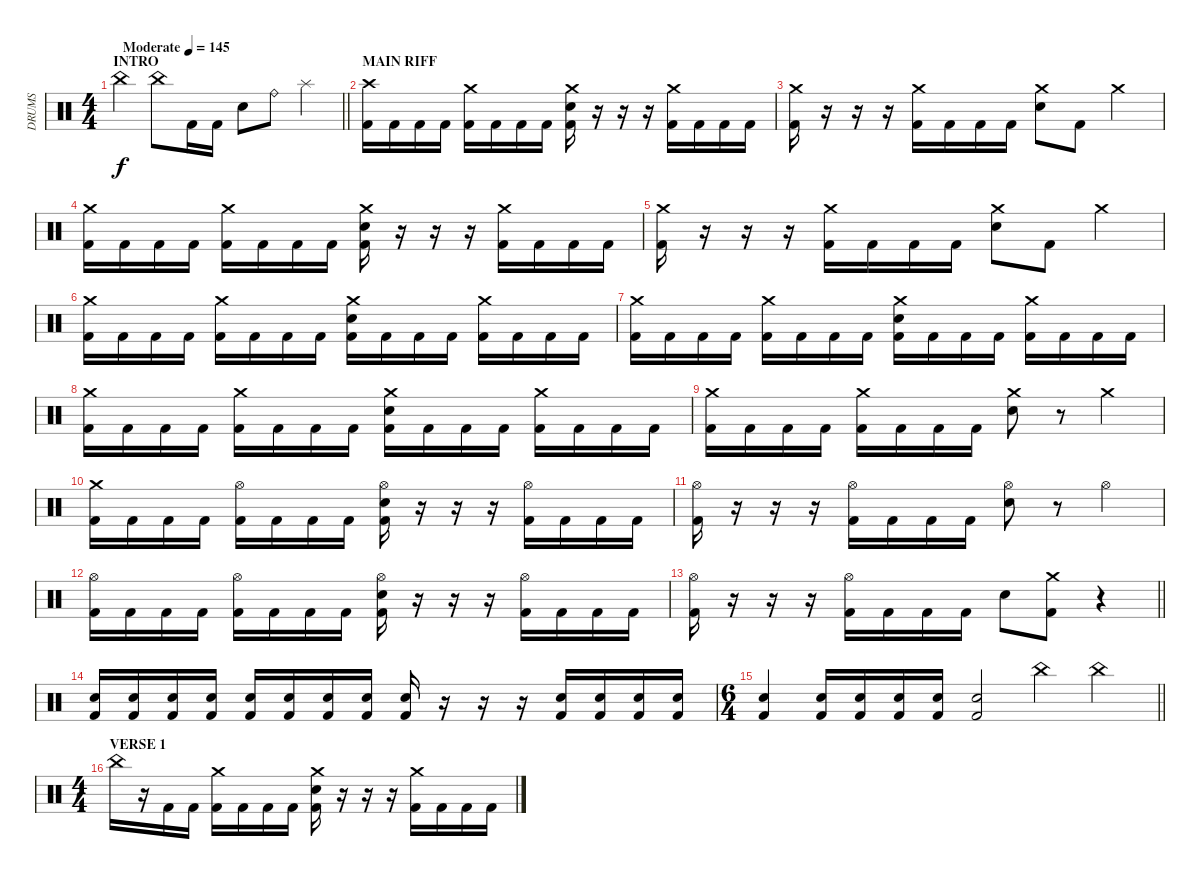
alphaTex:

\track ("DRUMS" "DRUMS") {instrument percussion}
\staff {score}
\articulation defaults
\ts (4 4)
\section ("" "INTRO")
\tempo (145 "Moderate")
\clef neutral
\barLineRight lightlight
\ks c "China (hit)".4{dy f} "China (hit)".8 "Kick (hit) 2".16 "Kick (hit) 2".16 "Electric Snare (hit)".8 "Ride (bell)".8 "Splash (hit)".4
|
\section ("" "MAIN RIFF")
("Crash high (hit)" "Kick (hit) 2").16 "Kick (hit) 2".16 "Kick (hit) 2".16 "Kick (hit) 2".16 ("Crash medium (hit)" "Kick (hit) 2").16 "Kick (hit) 2".16 "Kick (hit) 2".16 "Kick (hit) 2".16 ("Crash medium (hit)" "Electric Snare (hit)" "Kick (hit) 2").16 r.16 r.16 r.16 ("Crash medium (hit)" "Kick (hit) 2").16 "Kick (hit) 2".16 "Kick (hit) 2".16 "Kick (hit) 2".16 |
("Crash medium (hit)" "Kick (hit) 2").16 r.16 r.16 r.16 ("Crash medium (hit)" "Kick (hit) 2").16 "Kick (hit) 2".16 "Kick (hit) 2".16 "Kick (hit) 2".16 ("Crash medium (hit)" "Electric Snare (hit)").8 "Kick (hit) 2".8 "Crash medium (hit)".4 |
("Crash medium (hit)" "Kick (hit) 2").16 "Kick (hit) 2".16 "Kick (hit) 2".16 "Kick (hit) 2".16 ("Crash medium (hit)" "Kick (hit) 2").16 "Kick (hit) 2".16 "Kick (hit) 2".16 "Kick (hit) 2".16 ("Crash medium (hit)" "Electric Snare (hit)" "Kick (hit) 2").16 r.16 r.16 r.16 ("Crash medium (hit)" "Kick (hit) 2").16 "Kick (hit) 2".16 "Kick (hit) 2".16 "Kick (hit) 2".16 |
("Crash medium (hit)" "Kick (hit) 2").16 r.16 r.16 r.16 ("Crash medium (hit)" "Kick (hit) 2").16 "Kick (hit) 2".16 "Kick (hit) 2".16 "Kick (hit) 2".16 ("Crash medium (hit)" "Electric Snare (hit)").8 "Kick (hit) 2".8 "Crash medium (hit)".4 |
("Crash medium (hit)" "Kick (hit) 2").16 "Kick (hit) 2".16 "Kick (hit) 2".16 "Kick (hit) 2".16 ("Crash medium (hit)" "Kick (hit) 2").16 "Kick (hit) 2".16 "Kick (hit) 2".16 "Kick (hit) 2".16 ("Crash medium (hit)" "Electric Snare (hit)" "Kick (hit) 2").16 "Kick (hit) 2".16 "Kick (hit) 2".16 "Kick (hit) 2".16 ("Crash medium (hit)" "Kick (hit) 2").16 "Kick (hit) 2".16 "Kick (hit) 2".16 "Kick (hit) 2".16 |
("Crash medium (hit)" "Kick (hit) 2").16 "Kick (hit) 2".16 "Kick (hit) 2".16 "Kick (hit) 2".16 ("Crash medium (hit)" "Kick (hit) 2").16 "Kick (hit) 2".16 "Kick (hit) 2".16 "Kick (hit) 2".16 ("Crash medium (hit)" "Electric Snare (hit)" "Kick (hit) 2").16 "Kick (hit) 2".16 "Kick (hit) 2".16 "Kick (hit) 2".16 ("Crash medium (hit)" "Kick (hit) 2").16 "Kick (hit) 2".16 "Kick (hit) 2".16 "Kick (hit) 2".16 |
("Crash medium (hit)" "Kick (hit) 2").16 "Kick (hit) 2".16 "Kick (hit) 2".16 "Kick (hit) 2".16 ("Crash medium (hit)" "Kick (hit) 2").16 "Kick (hit) 2".16 "Kick (hit) 2".16 "Kick (hit) 2".16 ("Crash medium (hit)" "Electric Snare (hit)" "Kick (hit) 2").16 "Kick (hit) 2".16 "Kick (hit) 2".16 "Kick (hit) 2".16 ("Crash medium (hit)" "Kick (hit) 2").16 "Kick (hit) 2".16 "Kick (hit) 2".16 "Kick (hit) 2".16 |
("Crash medium (hit)" "Kick (hit) 2").16 "Kick (hit) 2".16 "Kick (hit) 2".16 "Kick (hit) 2".16 ("Crash medium (hit)" "Kick (hit) 2").16 "Kick (hit) 2".16 "Kick (hit) 2".16 "Kick (hit) 2".16 ("Crash medium (hit)" "Electric Snare (hit)").8 r.8 "Crash medium (hit)".4 |
("Crash medium (hit)" "Kick (hit) 2").16 "Kick (hit) 2".16 "Kick (hit) 2".16 "Kick (hit) 2".16 ("Hi-Hat (open)" "Kick (hit) 2").16 "Kick (hit) 2".16 "Kick (hit) 2".16 "Kick (hit) 2".16 ("Hi-Hat (open)" "Electric Snare (hit)" "Kick (hit) 2").16 r.16 r.16 r.16 ("Hi-Hat (open)" "Kick (hit) 2").16 "Kick (hit) 2".16 "Kick (hit) 2".16 "Kick (hit) 2".16 |
("Hi-Hat (open)" "Kick (hit) 2").16 r.16 r.16 r.16 ("Hi-Hat (open)" "Kick (hit) 2").16 "Kick (hit) 2".16 "Kick (hit) 2".16 "Kick (hit) 2".16 ("Hi-Hat (open)" "Electric Snare (hit)").8 r.8 "Hi-Hat (open)".4 |
("Hi-Hat (open)" "Kick (hit) 2").16 "Kick (hit) 2".16 "Kick (hit) 2".16 "Kick (hit) 2".16 ("Hi-Hat (open)" "Kick (hit) 2").16 "Kick (hit) 2".16 "Kick (hit) 2".16 "Kick (hit) 2".16 ("Hi-Hat (open)" "Electric Snare (hit)" "Kick (hit) 2").16 r.16 r.16 r.16 ("Hi-Hat (open)" "Kick (hit) 2").16 "Kick (hit) 2".16 "Kick (hit) 2".16 "Kick (hit) 2".16 |
\barLineRight lightlight
("Hi-Hat (open)" "Kick (hit) 2").16 r.16 r.16 r.16 ("Hi-Hat (open)" "Kick (hit) 2").16 "Kick (hit) 2".16 "Kick (hit) 2".16 "Kick (hit) 2".16 "Electric Snare (hit)".8 ("Crash medium (hit)" "Kick (hit) 2").8 r.4 |
("Electric Snare (hit)" "Kick (hit) 2").16 ("Electric Snare (hit)" "Kick (hit) 2").16 ("Electric Snare (hit)" "Kick (hit) 2").16 ("Electric Snare (hit)" "Kick (hit) 2").16 ("Electric Snare (hit)" "Kick (hit) 2").16 ("Electric Snare (hit)" "Kick (hit) 2").16 ("Electric Snare (hit)" "Kick (hit) 2").16 ("Electric Snare (hit)" "Kick (hit) 2").16 ("Electric Snare (hit)" "Kick (hit) 2").16 r.16 r.16 r.16 ("Electric Snare (hit)" "Kick (hit) 2").16 ("Electric Snare (hit)" "Kick (hit) 2").16 ("Electric Snare (hit)" "Kick (hit) 2").16 ("Electric Snare (hit)" "Kick (hit) 2").16 |
\ts (6 4)
\barLineRight lightlight
("Electric Snare (hit)" "Kick (hit) 2").4 ("Electric Snare (hit)" "Kick (hit) 2").16 ("Electric Snare (hit)" "Kick (hit) 2").16 ("Electric Snare (hit)" "Kick (hit) 2").16 ("Electric Snare (hit)" "Kick (hit) 2").16 ("Electric Snare (hit)" "Kick (hit) 2").2 "China (hit)".4 "China (hit)".4 |
\ts (4 4)
\section ("" "VERSE 1")
"China (hit)".16 r.16 "Kick (hit) 2".16 "Kick (hit) 2".16 ("Crash medium (hit)" "Kick (hit) 2").16 "Kick (hit) 2".16 "Kick (hit) 2".16 "Kick (hit) 2".16 ("Crash medium (hit)" "Electric Snare (hit)" "Kick (hit) 2").16 r.16 r.16 r.16 ("Crash medium (hit)" "Kick (hit) 2").16 "Kick (hit) 2".16 "Kick (hit) 2".16 "Kick (hit) 2".16
